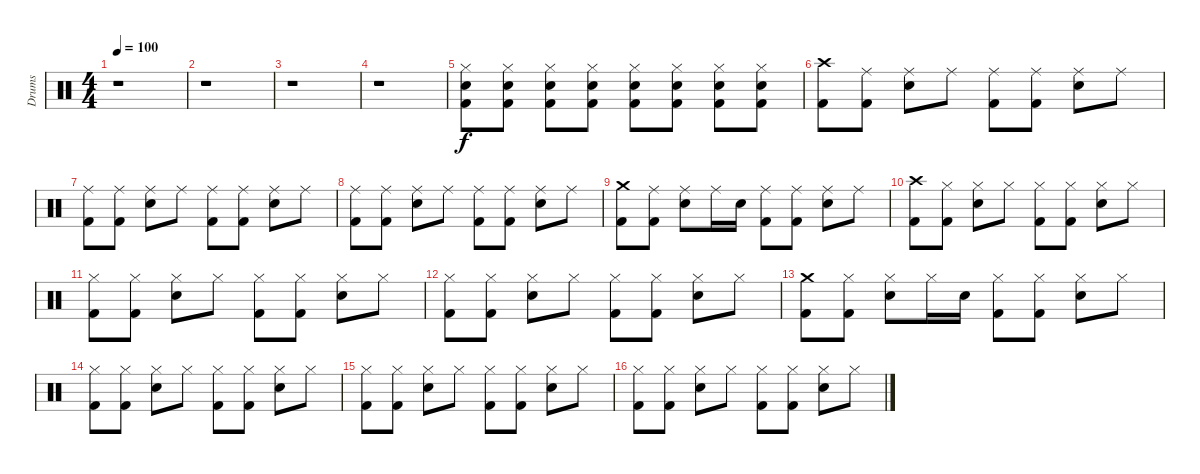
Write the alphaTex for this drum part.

\track ("Drums" "Drums") {instrument percussion}
\staff {score}
\articulation defaults
\ts (4 4)
\tempo 100
\clef neutral
\ks c
r.1{dy f} |
r.1 |
r.1 |
r.1{volume 8} |
("Hi-Hat (closed)" "Electric Snare (hit)" "Kick (hit) 2").8{volume 14} ("Hi-Hat (closed)" "Electric Snare (hit)" "Kick (hit) 2").8 ("Hi-Hat (closed)" "Electric Snare (hit)" "Kick (hit) 2").8 ("Hi-Hat (closed)" "Electric Snare (hit)" "Kick (hit) 2").8 ("Hi-Hat (closed)" "Electric Snare (hit)" "Kick (hit) 2").8 ("Hi-Hat (closed)" "Electric Snare (hit)" "Kick (hit) 2").8 ("Hi-Hat (closed)" "Electric Snare (hit)" "Kick (hit) 2").8 ("Hi-Hat (closed)" "Electric Snare (hit)" "Kick (hit) 2").8 |
("Crash high (hit)" "Kick (hit) 2").8 ("Ride (middle)" "Kick (hit) 2").8 ("Ride (middle)" "Electric Snare (hit)").8 "Ride (middle)".8 ("Ride (middle)" "Kick (hit) 2").8 ("Ride (middle)" "Kick (hit) 2").8 ("Ride (middle)" "Electric Snare (hit)").8 "Ride (middle)".8 |
("Ride (middle)" "Kick (hit) 2").8 ("Ride (middle)" "Kick (hit) 2").8 ("Ride (middle)" "Electric Snare (hit)").8 "Ride (middle)".8 ("Ride (middle)" "Kick (hit) 2").8 ("Ride (middle)" "Kick (hit) 2").8 ("Ride (middle)" "Electric Snare (hit)").8 "Ride (middle)".8 |
("Ride (middle)" "Kick (hit) 2").8 ("Ride (middle)" "Kick (hit) 2").8 ("Ride (middle)" "Electric Snare (hit)").8 "Ride (middle)".8 ("Ride (middle)" "Kick (hit) 2").8 ("Ride (middle)" "Kick (hit) 2").8 ("Ride (middle)" "Electric Snare (hit)").8 "Ride (middle)".8 |
("Crash medium (hit)" "Kick (hit) 2").8 ("Ride (middle)" "Kick (hit) 2").8 ("Ride (middle)" "Electric Snare (hit)").8 "Ride (middle)".16 "Electric Snare (hit)".16 ("Ride (middle)" "Kick (hit) 2").8 ("Ride (middle)" "Kick (hit) 2").8 ("Ride (middle)" "Electric Snare (hit)").8 "Ride (middle)".8 |
("Crash high (hit)" "Kick (hit) 2").8 ("Hi-Hat (closed)" "Kick (hit) 2").8 ("Hi-Hat (closed)" "Electric Snare (hit)").8 "Hi-Hat (closed)".8 ("Hi-Hat (closed)" "Kick (hit) 2").8 ("Hi-Hat (closed)" "Kick (hit) 2").8 ("Hi-Hat (closed)" "Electric Snare (hit)").8 "Hi-Hat (closed)".8 |
("Hi-Hat (closed)" "Kick (hit) 2").8 ("Hi-Hat (closed)" "Kick (hit) 2").8 ("Hi-Hat (closed)" "Electric Snare (hit)").8 "Hi-Hat (closed)".8 ("Hi-Hat (closed)" "Kick (hit) 2").8 ("Hi-Hat (closed)" "Kick (hit) 2").8 ("Hi-Hat (closed)" "Electric Snare (hit)").8 "Hi-Hat (closed)".8 |
("Hi-Hat (closed)" "Kick (hit) 2").8 ("Hi-Hat (closed)" "Kick (hit) 2").8 ("Hi-Hat (closed)" "Electric Snare (hit)").8 "Hi-Hat (closed)".8 ("Hi-Hat (closed)" "Kick (hit) 2").8 ("Hi-Hat (closed)" "Kick (hit) 2").8 ("Hi-Hat (closed)" "Electric Snare (hit)").8 "Hi-Hat (closed)".8 |
("Crash medium (hit)" "Kick (hit) 2").8 ("Hi-Hat (closed)" "Kick (hit) 2").8 ("Hi-Hat (closed)" "Electric Snare (hit)").8 "Hi-Hat (closed)".16 "Electric Snare (hit)".16 ("Hi-Hat (closed)" "Kick (hit) 2").8 ("Hi-Hat (closed)" "Kick (hit) 2").8 ("Hi-Hat (closed)" "Electric Snare (hit)").8 "Hi-Hat (closed)".8 |
("Hi-Hat (closed)" "Kick (hit) 2").8 ("Hi-Hat (closed)" "Kick (hit) 2").8 ("Hi-Hat (closed)" "Electric Snare (hit)").8 "Hi-Hat (closed)".8 ("Hi-Hat (closed)" "Kick (hit) 2").8 ("Hi-Hat (closed)" "Kick (hit) 2").8 ("Hi-Hat (closed)" "Electric Snare (hit)").8 "Hi-Hat (closed)".8 |
("Hi-Hat (closed)" "Kick (hit) 2").8 ("Hi-Hat (closed)" "Kick (hit) 2").8 ("Hi-Hat (closed)" "Electric Snare (hit)").8 "Hi-Hat (closed)".8 ("Hi-Hat (closed)" "Kick (hit) 2").8 ("Hi-Hat (closed)" "Kick (hit) 2").8 ("Hi-Hat (closed)" "Electric Snare (hit)").8 "Hi-Hat (closed)".8 |
("Hi-Hat (closed)" "Kick (hit) 2").8 ("Hi-Hat (closed)" "Kick (hit) 2").8 ("Hi-Hat (closed)" "Electric Snare (hit)").8 "Hi-Hat (closed)".8 ("Hi-Hat (closed)" "Kick (hit) 2").8 ("Hi-Hat (closed)" "Kick (hit) 2").8 ("Hi-Hat (closed)" "Electric Snare (hit)").8 "Hi-Hat (closed)".8
